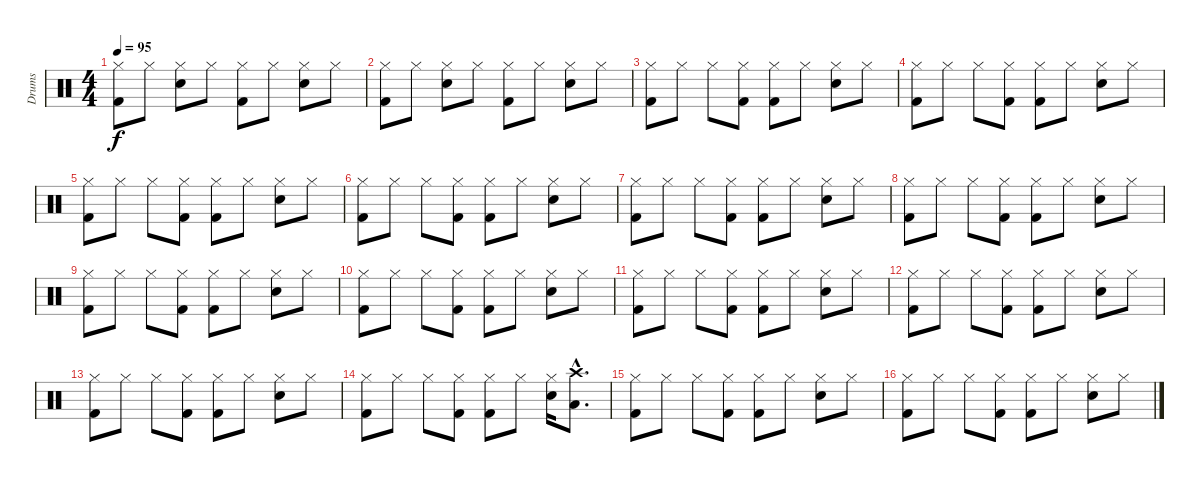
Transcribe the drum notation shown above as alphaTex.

\track ("Drums" "Drums") {instrument percussion}
\staff {score}
\articulation defaults
\ts (4 4)
\tempo 95
\clef neutral
\ks c
("Kick (hit) 2" "Hi-Hat (closed)").8{dy f} "Hi-Hat (closed)".8 ("Snare (hit) 2" "Hi-Hat (closed)").8 "Hi-Hat (closed)".8 ("Kick (hit) 2" "Hi-Hat (closed)").8 "Hi-Hat (closed)".8 ("Snare (hit) 2" "Hi-Hat (closed)").8 "Hi-Hat (closed)".8 |
("Kick (hit) 2" "Hi-Hat (closed)").8 "Hi-Hat (closed)".8 ("Snare (hit) 2" "Hi-Hat (closed)").8 "Hi-Hat (closed)".8 ("Kick (hit) 2" "Hi-Hat (closed)").8 "Hi-Hat (closed)".8 ("Snare (hit) 2" "Hi-Hat (closed)").8 "Hi-Hat (closed)".8 |
("Kick (hit) 2" "Hi-Hat (closed)").8 "Hi-Hat (closed)".8 "Hi-Hat (closed)".8 ("Kick (hit) 2" "Hi-Hat (closed)").8 ("Kick (hit) 2" "Hi-Hat (closed)").8 "Hi-Hat (closed)".8 ("Snare (hit) 2" "Hi-Hat (closed)").8 "Hi-Hat (closed)".8 |
("Kick (hit) 2" "Hi-Hat (closed)").8 "Hi-Hat (closed)".8 "Hi-Hat (closed)".8 ("Kick (hit) 2" "Hi-Hat (closed)").8 ("Kick (hit) 2" "Hi-Hat (closed)").8 "Hi-Hat (closed)".8 ("Snare (hit) 2" "Hi-Hat (closed)").8 "Hi-Hat (closed)".8 |
("Kick (hit) 2" "Hi-Hat (closed)").8 "Hi-Hat (closed)".8 "Hi-Hat (closed)".8 ("Kick (hit) 2" "Hi-Hat (closed)").8 ("Kick (hit) 2" "Hi-Hat (closed)").8 "Hi-Hat (closed)".8 ("Snare (hit) 2" "Hi-Hat (closed)").8 "Hi-Hat (closed)".8 |
("Kick (hit) 2" "Hi-Hat (closed)").8 "Hi-Hat (closed)".8 "Hi-Hat (closed)".8 ("Kick (hit) 2" "Hi-Hat (closed)").8 ("Kick (hit) 2" "Hi-Hat (closed)").8 "Hi-Hat (closed)".8 ("Snare (hit) 2" "Hi-Hat (closed)").8 "Hi-Hat (closed)".8 |
("Kick (hit) 2" "Hi-Hat (closed)").8 "Hi-Hat (closed)".8 "Hi-Hat (closed)".8 ("Kick (hit) 2" "Hi-Hat (closed)").8 ("Kick (hit) 2" "Hi-Hat (closed)").8 "Hi-Hat (closed)".8 ("Snare (hit) 2" "Hi-Hat (closed)").8 "Hi-Hat (closed)".8 |
("Kick (hit) 2" "Hi-Hat (closed)").8 "Hi-Hat (closed)".8 "Hi-Hat (closed)".8 ("Kick (hit) 2" "Hi-Hat (closed)").8 ("Kick (hit) 2" "Hi-Hat (closed)").8 "Hi-Hat (closed)".8 ("Snare (hit) 2" "Hi-Hat (closed)").8 "Hi-Hat (closed)".8 |
("Kick (hit) 2" "Hi-Hat (closed)").8 "Hi-Hat (closed)".8 "Hi-Hat (closed)".8 ("Kick (hit) 2" "Hi-Hat (closed)").8 ("Kick (hit) 2" "Hi-Hat (closed)").8 "Hi-Hat (closed)".8 ("Snare (hit) 2" "Hi-Hat (closed)").8 "Hi-Hat (closed)".8 |
("Kick (hit) 2" "Hi-Hat (closed)").8 "Hi-Hat (closed)".8 "Hi-Hat (closed)".8 ("Kick (hit) 2" "Hi-Hat (closed)").8 ("Kick (hit) 2" "Hi-Hat (closed)").8 "Hi-Hat (closed)".8 ("Snare (hit) 2" "Hi-Hat (closed)").8 "Hi-Hat (closed)".8 |
("Kick (hit) 2" "Hi-Hat (closed)").8 "Hi-Hat (closed)".8 "Hi-Hat (closed)".8 ("Kick (hit) 2" "Hi-Hat (closed)").8 ("Kick (hit) 2" "Hi-Hat (closed)").8 "Hi-Hat (closed)".8 ("Snare (hit) 2" "Hi-Hat (closed)").8 "Hi-Hat (closed)".8 |
("Kick (hit) 2" "Hi-Hat (closed)").8 "Hi-Hat (closed)".8 "Hi-Hat (closed)".8 ("Kick (hit) 2" "Hi-Hat (closed)").8 ("Kick (hit) 2" "Hi-Hat (closed)").8 "Hi-Hat (closed)".8 ("Snare (hit) 2" "Hi-Hat (closed)").8 "Hi-Hat (closed)".8 |
("Kick (hit) 2" "Hi-Hat (closed)").8 "Hi-Hat (closed)".8 "Hi-Hat (closed)".8 ("Kick (hit) 2" "Hi-Hat (closed)").8 ("Kick (hit) 2" "Hi-Hat (closed)").8 "Hi-Hat (closed)".8 ("Snare (hit) 2" "Hi-Hat (closed)").8 "Hi-Hat (closed)".8 |
("Kick (hit) 2" "Hi-Hat (closed)").8 "Hi-Hat (closed)".8 "Hi-Hat (closed)".8 ("Kick (hit) 2" "Hi-Hat (closed)").8 ("Kick (hit) 2" "Hi-Hat (closed)").8 "Hi-Hat (closed)".8 ("Snare (hit) 2" "Hi-Hat (closed)").16 ("Low Tom (hit)"{hac} "Crash high (hit)"{hac}).8{d} |
("Kick (hit) 2" "Hi-Hat (closed)").8 "Hi-Hat (closed)".8 "Hi-Hat (closed)".8 ("Kick (hit) 2" "Hi-Hat (closed)").8 ("Kick (hit) 2" "Hi-Hat (closed)").8 "Hi-Hat (closed)".8 ("Snare (hit) 2" "Hi-Hat (closed)").8 "Hi-Hat (closed)".8 |
("Kick (hit) 2" "Hi-Hat (closed)").8 "Hi-Hat (closed)".8 "Hi-Hat (closed)".8 ("Kick (hit) 2" "Hi-Hat (closed)").8 ("Kick (hit) 2" "Hi-Hat (closed)").8 "Hi-Hat (closed)".8 ("Snare (hit) 2" "Hi-Hat (closed)").8 "Hi-Hat (closed)".8
